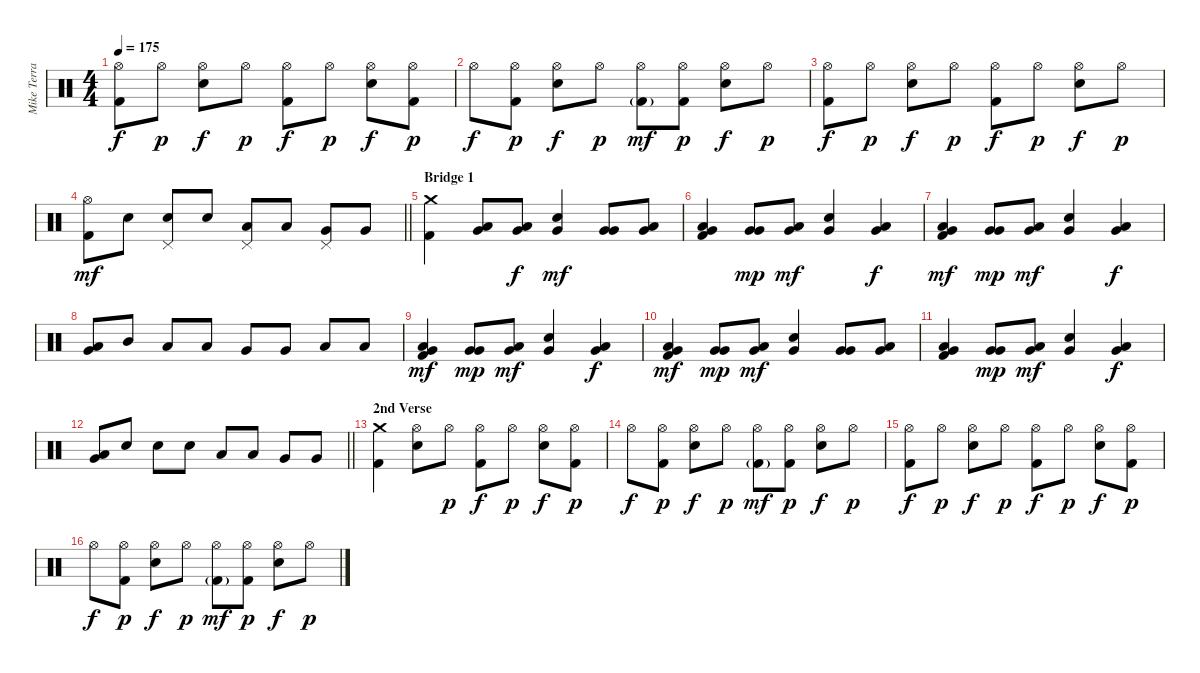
\track ("Mike Terrana" "Mike Terra") {instrument percussion}
\staff {score}
\articulation defaults
\ts (4 4)
\tempo 175
\clef neutral
\ks c
("Hi-Hat (open)" "Kick (hit) 2").8{dy f} "Hi-Hat (open)".8{dy p} ("Hi-Hat (open)" "Snare (hit) 2").8{dy f} "Hi-Hat (open)".8{dy p} ("Hi-Hat (open)" "Kick (hit) 2").8{dy f} "Hi-Hat (open)".8{dy p} ("Hi-Hat (open)" "Snare (hit) 2").8{dy f} ("Hi-Hat (open)" "Kick (hit) 2").8{dy p} |
"Hi-Hat (open)".8{dy f} ("Hi-Hat (open)" "Kick (hit) 2").8{dy p} ("Hi-Hat (open)" "Snare (hit) 2").8{dy f} "Hi-Hat (open)".8{dy p} ("Hi-Hat (open)" "Kick (hit) 2"{g}).8{dy mf} ("Hi-Hat (open)" "Kick (hit) 2").8{dy p} ("Hi-Hat (open)" "Snare (hit) 2").8{dy f} "Hi-Hat (open)".8{dy p} |
("Hi-Hat (open)" "Kick (hit) 2").8{dy f} "Hi-Hat (open)".8{dy p} ("Hi-Hat (open)" "Snare (hit) 2").8{dy f} "Hi-Hat (open)".8{dy p} ("Hi-Hat (open)" "Kick (hit) 2").8{dy f} "Hi-Hat (open)".8{dy p} ("Hi-Hat (open)" "Snare (hit) 2").8{dy f} "Hi-Hat (open)".8{dy p} |
\barLineRight lightlight
("Hi-Hat (open)" "Kick (hit) 2").8{dy mf} "Snare (hit) 2".8 ("Pedal Hi-Hat (hit)" "Snare (hit) 2").8 "Snare (hit) 2".8 ("Pedal Hi-Hat (hit)" "Low Tom (hit)").8 "Low Tom (hit)".8 ("Pedal Hi-Hat (hit)" "Very Low Tom (hit)").8 "Very Low Tom (hit)".8 |
\section ("" "Bridge 1")
("Crash medium (hit)" "Kick (hit) 2").4 ("Low Tom (hit)" "Very Low Tom (hit)").8 ("Low Tom (hit)" "Very Low Tom (hit)").8{dy f} ("Snare (hit) 2" "Very Low Tom (hit)").4{dy mf} ("Very Low Tom (hit)" "Very Low Tom (hit)").8 ("Low Tom (hit)" "Very Low Tom (hit)").8 |
("Low Tom (hit)" "Very Low Tom (hit)" "Kick (hit) 2").4 ("Very Low Tom (hit)" "Very Low Tom (hit)").8{dy mp} ("Low Tom (hit)" "Very Low Tom (hit)").8{dy mf} ("Snare (hit) 2" "Very Low Tom (hit)").4 ("Low Tom (hit)" "Very Low Tom (hit)").4{dy f} |
("Low Tom (hit)" "Very Low Tom (hit)" "Kick (hit) 2").4{dy mf} ("Very Low Tom (hit)" "Very Low Tom (hit)").8{dy mp} ("Low Tom (hit)" "Very Low Tom (hit)").8{dy mf} ("Snare (hit) 2" "Very Low Tom (hit)").4 ("Low Tom (hit)" "Very Low Tom (hit)").4{dy f} |
("Low Tom (hit)" "Very Low Tom (hit)").8 "Mid Tom (hit)".8 "Low Tom (hit)".8 "Low Tom (hit)".8 "Very Low Tom (hit)".8 "Very Low Tom (hit)".8 "Low Floor Tom (hit)".8 "Low Floor Tom (hit)".8 |
("Low Tom (hit)" "Very Low Tom (hit)" "Kick (hit) 2").4{dy mf} ("Very Low Tom (hit)" "Very Low Tom (hit)").8{dy mp} ("Low Tom (hit)" "Very Low Tom (hit)").8{dy mf} ("Snare (hit) 2" "Very Low Tom (hit)").4 ("Low Tom (hit)" "Very Low Tom (hit)").4{dy f} |
("Low Tom (hit)" "Very Low Tom (hit)" "Kick (hit) 2").4{dy mf} ("Very Low Tom (hit)" "Very Low Tom (hit)").8{dy mp} ("Low Tom (hit)" "Very Low Tom (hit)").8{dy mf} ("Snare (hit) 2" "Very Low Tom (hit)").4 ("Very Low Tom (hit)" "Very Low Tom (hit)").8 ("Low Tom (hit)" "Very Low Tom (hit)").8 |
("Low Tom (hit)" "Very Low Tom (hit)" "Kick (hit) 2").4 ("Very Low Tom (hit)" "Very Low Tom (hit)").8{dy mp} ("Low Tom (hit)" "Very Low Tom (hit)").8{dy mf} ("Snare (hit) 2" "Very Low Tom (hit)").4 ("Low Tom (hit)" "Very Low Tom (hit)").4{dy f} |
\barLineRight lightlight
("Low Tom (hit)" "Very Low Tom (hit)").8 "Snare (hit) 2".8 "Snare (hit) 2".8 "Snare (hit) 2".8 "Low Tom (hit)".8 "Low Tom (hit)".8 "Very Low Tom (hit)".8 "Very Low Tom (hit)".8 |
\section ("" "2nd Verse")
("Crash medium (hit)" "Kick (hit) 2").4 ("Hi-Hat (open)" "Snare (hit) 2").8 "Hi-Hat (open)".8{dy p} ("Hi-Hat (open)" "Kick (hit) 2").8{dy f} "Hi-Hat (open)".8{dy p} ("Hi-Hat (open)" "Snare (hit) 2").8{dy f} ("Hi-Hat (open)" "Kick (hit) 2").8{dy p} |
"Hi-Hat (open)".8{dy f} ("Hi-Hat (open)" "Kick (hit) 2").8{dy p} ("Hi-Hat (open)" "Snare (hit) 2").8{dy f} "Hi-Hat (open)".8{dy p} ("Hi-Hat (open)" "Kick (hit) 2"{g}).8{dy mf} ("Hi-Hat (open)" "Kick (hit) 2").8{dy p} ("Hi-Hat (open)" "Snare (hit) 2").8{dy f} "Hi-Hat (open)".8{dy p} |
("Hi-Hat (open)" "Kick (hit) 2").8{dy f} "Hi-Hat (open)".8{dy p} ("Hi-Hat (open)" "Snare (hit) 2").8{dy f} "Hi-Hat (open)".8{dy p} ("Hi-Hat (open)" "Kick (hit) 2").8{dy f} "Hi-Hat (open)".8{dy p} ("Hi-Hat (open)" "Snare (hit) 2").8{dy f} ("Hi-Hat (open)" "Kick (hit) 2").8{dy p} |
"Hi-Hat (open)".8{dy f} ("Hi-Hat (open)" "Kick (hit) 2").8{dy p} ("Hi-Hat (open)" "Snare (hit) 2").8{dy f} "Hi-Hat (open)".8{dy p} ("Hi-Hat (open)" "Kick (hit) 2"{g}).8{dy mf} ("Hi-Hat (open)" "Kick (hit) 2").8{dy p} ("Hi-Hat (open)" "Snare (hit) 2").8{dy f} "Hi-Hat (open)".8{dy p}
